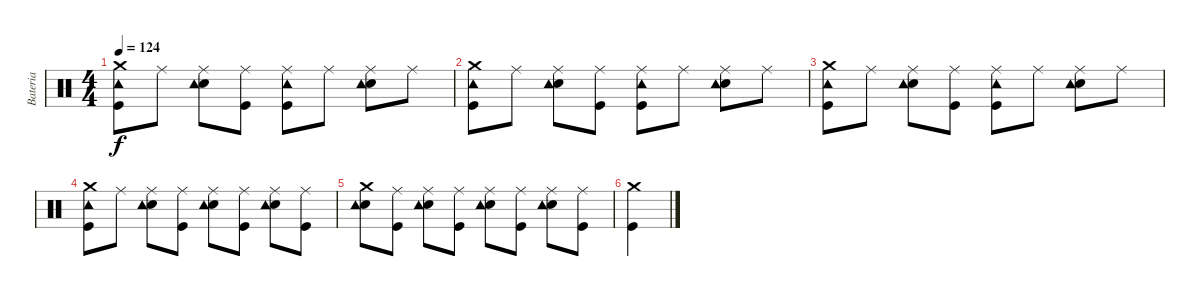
\track ("Bateria" "Bateria") {instrument percussion}
\staff {score}
\articulation defaults
\ts (4 4)
\tempo 124
\clef neutral
\ks c
("Crash medium (hit)" "Kick (hit)" "Tambourine (hit)").8{dy f} "Ride (middle)".8 ("Ride (middle)" "Snare (hit) 2" "Tambourine (hit)").8 ("Ride (middle)" "Kick (hit)").8 ("Ride (middle)" "Kick (hit)" "Tambourine (hit)").8 "Ride (middle)".8 ("Ride (middle)" "Snare (hit) 2" "Tambourine (hit)").8 "Ride (middle)".8 |
("Crash medium (hit)" "Kick (hit)" "Tambourine (hit)").8 "Ride (middle)".8 ("Ride (middle)" "Snare (hit) 2" "Tambourine (hit)").8 ("Ride (middle)" "Kick (hit)").8 ("Ride (middle)" "Kick (hit)" "Tambourine (hit)").8 "Ride (middle)".8 ("Ride (middle)" "Snare (hit) 2" "Tambourine (hit)").8 "Ride (middle)".8 |
("Crash medium (hit)" "Kick (hit)" "Tambourine (hit)").8 "Ride (middle)".8 ("Ride (middle)" "Snare (hit) 2" "Tambourine (hit)").8 ("Ride (middle)" "Kick (hit)").8 ("Ride (middle)" "Kick (hit)" "Tambourine (hit)").8 "Ride (middle)".8 ("Ride (middle)" "Snare (hit) 2" "Tambourine (hit)").8 "Ride (middle)".8 |
("Crash medium (hit)" "Kick (hit)" "Tambourine (hit)").8 "Ride (middle)".8 ("Ride (middle)" "Snare (hit) 2" "Tambourine (hit)").8 ("Ride (middle)" "Kick (hit)").8 ("Ride (middle)" "Snare (hit) 2" "Tambourine (hit)").8 ("Ride (middle)" "Kick (hit)").8 ("Ride (middle)" "Snare (hit) 2" "Tambourine (hit)").8 ("Ride (middle)" "Kick (hit)").8 |
("Crash medium (hit)" "Snare (hit) 2" "Tambourine (hit)").8 ("Ride (middle)" "Kick (hit)").8 ("Ride (middle)" "Snare (hit) 2" "Tambourine (hit)").8 ("Ride (middle)" "Kick (hit)").8 ("Ride (middle)" "Snare (hit) 2" "Tambourine (hit)").8 ("Ride (middle)" "Kick (hit)").8 ("Ride (middle)" "Snare (hit) 2" "Tambourine (hit)").8 ("Ride (middle)" "Kick (hit)").8 |
("Crash medium (hit)" "Kick (hit)").4
